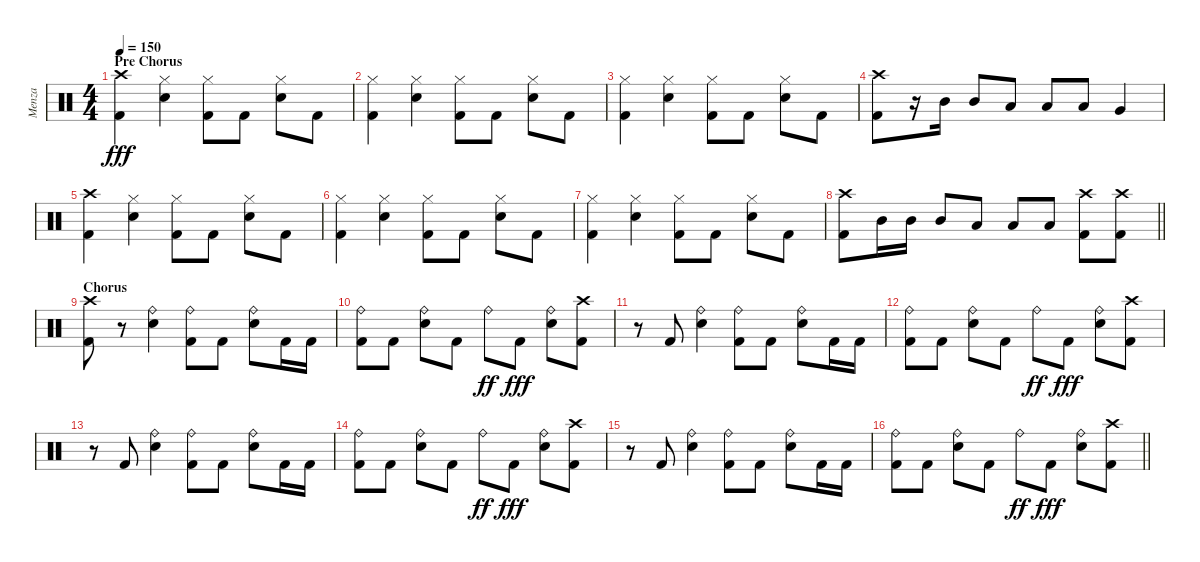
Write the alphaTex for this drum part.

\track ("Menza" "Menza") {instrument percussion}
\staff {score}
\articulation defaults
\ts (4 4)
\section ("" "Pre Chorus")
\tempo 150
\clef neutral
\ks c
("Crash high (hit)" "Kick (hit) 2").4{dy fff} ("Hi-Hat (closed)" "Snare (hit) 2").4 ("Hi-Hat (closed)" "Kick (hit) 2").8 "Kick (hit) 2".8 ("Hi-Hat (closed)" "Snare (hit) 2").8 "Kick (hit) 2".8 |
("Hi-Hat (closed)" "Kick (hit) 2").4 ("Hi-Hat (closed)" "Snare (hit) 2").4 ("Hi-Hat (closed)" "Kick (hit) 2").8 "Kick (hit) 2".8 ("Hi-Hat (closed)" "Snare (hit) 2").8 "Kick (hit) 2".8 |
("Hi-Hat (closed)" "Kick (hit) 2").4 ("Hi-Hat (closed)" "Snare (hit) 2").4 ("Hi-Hat (closed)" "Kick (hit) 2").8 "Kick (hit) 2".8 ("Hi-Hat (closed)" "Snare (hit) 2").8 "Kick (hit) 2".8 |
("Crash high (hit)" "Kick (hit) 2").8 r.16 "Mid Tom (hit)".16 "Mid Tom (hit)".8 "Low Tom (hit)".8 "Low Tom (hit)".8 "Low Tom (hit)".8 "Very Low Tom (hit)".4 |
("Crash high (hit)" "Kick (hit) 2").4 ("Hi-Hat (closed)" "Snare (hit) 2").4 ("Hi-Hat (closed)" "Kick (hit) 2").8 "Kick (hit) 2".8 ("Hi-Hat (closed)" "Snare (hit) 2").8 "Kick (hit) 2".8 |
("Hi-Hat (closed)" "Kick (hit) 2").4 ("Hi-Hat (closed)" "Snare (hit) 2").4 ("Hi-Hat (closed)" "Kick (hit) 2").8 "Kick (hit) 2".8 ("Hi-Hat (closed)" "Snare (hit) 2").8 "Kick (hit) 2".8 |
("Hi-Hat (closed)" "Kick (hit) 2").4 ("Hi-Hat (closed)" "Snare (hit) 2").4 ("Hi-Hat (closed)" "Kick (hit) 2").8 "Kick (hit) 2".8 ("Hi-Hat (closed)" "Snare (hit) 2").8 "Kick (hit) 2".8 |
\barLineRight lightlight
("Crash high (hit)" "Kick (hit) 2").8 "Mid Tom (hit)".16 "Mid Tom (hit)".16 "Mid Tom (hit)".8 "Low Tom (hit)".8 "Low Tom (hit)".8 "Low Tom (hit)".8 ("Crash high (hit)" "Kick (hit) 2").8 ("Crash high (hit)" "Kick (hit) 2").8 |
\section ("" "Chorus")
("Crash high (hit)" "Kick (hit) 2").8 r.8 ("Ride (bell)" "Snare (hit) 2").4 ("Ride (bell)" "Kick (hit) 2").8 "Kick (hit) 2".8 ("Ride (bell)" "Snare (hit) 2").8 "Kick (hit) 2".16 "Kick (hit) 2".16 |
("Ride (bell)" "Kick (hit) 2").8 "Kick (hit) 2".8 ("Ride (bell)" "Snare (hit) 2").8 "Kick (hit) 2".8 "Ride (bell)".8{dy ff} "Kick (hit) 2".8{dy fff} ("Ride (bell)" "Snare (hit) 2").8 ("Crash high (hit)" "Kick (hit) 2").8 |
r.8 "Kick (hit) 2".8 ("Ride (bell)" "Snare (hit) 2").4 ("Ride (bell)" "Kick (hit) 2").8 "Kick (hit) 2".8 ("Ride (bell)" "Snare (hit) 2").8 "Kick (hit) 2".16 "Kick (hit) 2".16 |
("Ride (bell)" "Kick (hit) 2").8 "Kick (hit) 2".8 ("Ride (bell)" "Snare (hit) 2").8 "Kick (hit) 2".8 "Ride (bell)".8{dy ff} "Kick (hit) 2".8{dy fff} ("Ride (bell)" "Snare (hit) 2").8 ("Crash high (hit)" "Kick (hit) 2").8 |
r.8 "Kick (hit) 2".8 ("Ride (bell)" "Snare (hit) 2").4 ("Ride (bell)" "Kick (hit) 2").8 "Kick (hit) 2".8 ("Ride (bell)" "Snare (hit) 2").8 "Kick (hit) 2".16 "Kick (hit) 2".16 |
("Ride (bell)" "Kick (hit) 2").8 "Kick (hit) 2".8 ("Ride (bell)" "Snare (hit) 2").8 "Kick (hit) 2".8 "Ride (bell)".8{dy ff} "Kick (hit) 2".8{dy fff} ("Ride (bell)" "Snare (hit) 2").8 ("Crash high (hit)" "Kick (hit) 2").8 |
r.8 "Kick (hit) 2".8 ("Ride (bell)" "Snare (hit) 2").4 ("Ride (bell)" "Kick (hit) 2").8 "Kick (hit) 2".8 ("Ride (bell)" "Snare (hit) 2").8 "Kick (hit) 2".16 "Kick (hit) 2".16 |
\barLineRight lightlight
("Ride (bell)" "Kick (hit) 2").8 "Kick (hit) 2".8 ("Ride (bell)" "Snare (hit) 2").8 "Kick (hit) 2".8 "Ride (bell)".8{dy ff} "Kick (hit) 2".8{dy fff} ("Ride (bell)" "Snare (hit) 2").8 ("Crash high (hit)" "Kick (hit) 2").8
